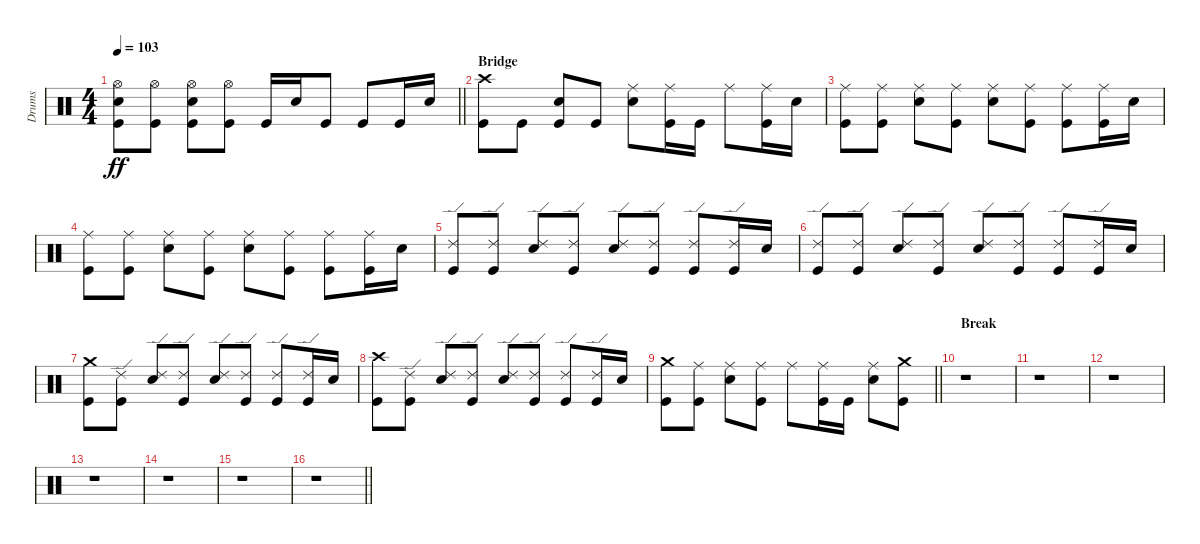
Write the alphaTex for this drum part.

\track ("Drums" "Drums") {instrument percussion}
\staff {score}
\articulation defaults
\ts (4 4)
\tempo 103
\clef neutral
\barLineRight lightlight
\ks c
("Hi-Hat (open)" "Electric Snare (hit)" "Kick (hit)").8{dy ff} ("Hi-Hat (open)" "Kick (hit)").8 ("Hi-Hat (open)" "Electric Snare (hit)" "Kick (hit)").8 ("Hi-Hat (open)" "Kick (hit)").8 "Kick (hit)".16 "Electric Snare (hit)".16 "Kick (hit)".8 "Kick (hit)".8 "Kick (hit)".16 "Electric Snare (hit)".16 |
\section ("" "Bridge")
("Crash high (hit)" "Kick (hit)").8 "Kick (hit)".8 ("Electric Snare (hit)" "Kick (hit)").8 "Kick (hit)".8 ("Ride (middle)" "Electric Snare (hit)").8 ("Ride (middle)" "Kick (hit)").16 "Kick (hit)".16 "Ride (middle)".8 ("Ride (middle)" "Kick (hit)").16 "Electric Snare (hit)".16 |
("Ride (middle)" "Kick (hit)").8 ("Ride (middle)" "Kick (hit)").8 ("Ride (middle)" "Electric Snare (hit)").8 ("Ride (middle)" "Kick (hit)").8 ("Ride (middle)" "Electric Snare (hit)").8 ("Ride (middle)" "Kick (hit)").8 ("Ride (middle)" "Kick (hit)").8 ("Ride (middle)" "Kick (hit)").16 "Electric Snare (hit)".16 |
("Ride (middle)" "Kick (hit)").8 ("Ride (middle)" "Kick (hit)").8 ("Ride (middle)" "Electric Snare (hit)").8 ("Ride (middle)" "Kick (hit)").8 ("Ride (middle)" "Electric Snare (hit)").8 ("Ride (middle)" "Kick (hit)").8 ("Ride (middle)" "Kick (hit)").8 ("Ride (middle)" "Kick (hit)").16 "Electric Snare (hit)".16 |
("Ride (edge) 2" "Kick (hit)").8 ("Ride (edge) 2" "Kick (hit)").8 ("Ride (edge) 2" "Electric Snare (hit)").8 ("Ride (edge) 2" "Kick (hit)").8 ("Ride (edge) 2" "Electric Snare (hit)").8 ("Ride (edge) 2" "Kick (hit)").8 ("Ride (edge) 2" "Kick (hit)").8 ("Ride (edge) 2" "Kick (hit)").16 "Electric Snare (hit)".16 |
("Ride (edge) 2" "Kick (hit)").8 ("Ride (edge) 2" "Kick (hit)").8 ("Ride (edge) 2" "Electric Snare (hit)").8 ("Ride (edge) 2" "Kick (hit)").8 ("Ride (edge) 2" "Electric Snare (hit)").8 ("Ride (edge) 2" "Kick (hit)").8 ("Ride (edge) 2" "Kick (hit)").8 ("Ride (edge) 2" "Kick (hit)").16 "Electric Snare (hit)".16 |
("Crash medium (hit)" "Kick (hit)").8 ("Ride (edge) 2" "Kick (hit)").8 ("Ride (edge) 2" "Electric Snare (hit)").8 ("Ride (edge) 2" "Kick (hit)").8 ("Ride (edge) 2" "Electric Snare (hit)").8 ("Ride (edge) 2" "Kick (hit)").8 ("Ride (edge) 2" "Kick (hit)").8 ("Ride (edge) 2" "Kick (hit)").16 "Electric Snare (hit)".16 |
("Crash high (hit)" "Kick (hit)").8 ("Ride (edge) 2" "Kick (hit)").8 ("Ride (edge) 2" "Electric Snare (hit)").8 ("Ride (edge) 2" "Kick (hit)").8 ("Ride (edge) 2" "Electric Snare (hit)").8 ("Ride (edge) 2" "Kick (hit)").8 ("Ride (edge) 2" "Kick (hit)").8 ("Ride (edge) 2" "Kick (hit)").16 "Electric Snare (hit)".16 |
\barLineRight lightlight
("Crash medium (hit)" "Kick (hit)").8 ("Ride (middle)" "Kick (hit)").8 ("Ride (middle)" "Electric Snare (hit)").8 ("Ride (middle)" "Kick (hit)").8 "Ride (middle)".8 ("Ride (middle)" "Kick (hit)").16 "Kick (hit)".16 ("Ride (middle)" "Electric Snare (hit)").8 ("Crash medium (hit)" "Kick (hit)").8 |
\section ("" "Break")
r.1 |
r.1 |
r.1 |
r.1 |
r.1 |
r.1 |
\barLineRight lightlight
r.1
